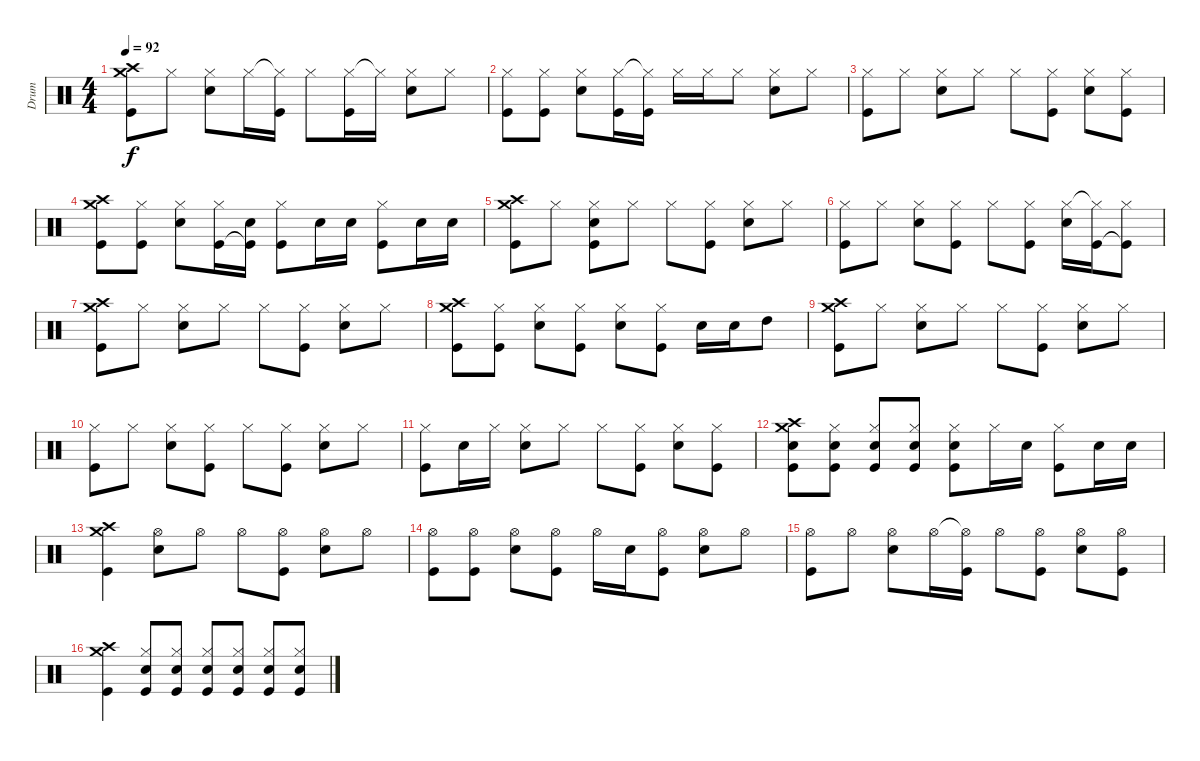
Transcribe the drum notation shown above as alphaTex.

\track ("Drum" "Drum") {instrument percussion}
\staff {score}
\articulation defaults
\ts (4 4)
\tempo 92
\clef neutral
\ks c
("Crash high (hit)" "Crash medium (hit)" "Kick (hit)").8{dy f} "Hi-Hat (closed)".8 ("Hi-Hat (closed)" "Snare (hit) 2").8 "Hi-Hat (closed)".16 ("Hi-Hat (closed)"{t} "Kick (hit)").16 "Hi-Hat (closed)".8 ("Hi-Hat (closed)" "Kick (hit)").16 "Hi-Hat (closed)"{t}.16 ("Hi-Hat (closed)" "Snare (hit) 2").8 "Hi-Hat (closed)".8 |
("Hi-Hat (closed)" "Kick (hit)").8 ("Hi-Hat (closed)" "Kick (hit)").8 ("Hi-Hat (closed)" "Snare (hit) 2").8 ("Hi-Hat (closed)" "Kick (hit)").16 ("Hi-Hat (closed)"{t} "Kick (hit)").16 "Hi-Hat (closed)".16 "Hi-Hat (closed)".16 "Hi-Hat (closed)".8 ("Hi-Hat (closed)" "Snare (hit) 2").8 "Hi-Hat (closed)".8 |
("Hi-Hat (closed)" "Kick (hit)").8 "Hi-Hat (closed)".8 ("Hi-Hat (closed)" "Snare (hit) 2").8 "Hi-Hat (closed)".8 "Hi-Hat (closed)".8 ("Hi-Hat (closed)" "Kick (hit)").8 ("Hi-Hat (closed)" "Snare (hit) 2").8 ("Hi-Hat (closed)" "Kick (hit)").8 |
("Crash high (hit)" "Crash medium (hit)" "Kick (hit)").8 ("Hi-Hat (closed)" "Kick (hit)").8 ("Hi-Hat (closed)" "Snare (hit) 2").8 ("Hi-Hat (closed)" "Kick (hit)").16 ("Snare (hit) 2" "Kick (hit)"{t}).16 ("Hi-Hat (closed)" "Kick (hit)").8 "Snare (hit) 2".16 "Snare (hit) 2".16 ("Hi-Hat (closed)" "Kick (hit)").8 "Snare (hit) 2".16 "Snare (hit) 2".16 |
("Crash high (hit)" "Crash medium (hit)" "Kick (hit)").8 "Hi-Hat (closed)".8 ("Hi-Hat (closed)" "Snare (hit) 2" "Kick (hit)").8 "Hi-Hat (closed)".8 "Hi-Hat (closed)".8 ("Hi-Hat (closed)" "Kick (hit)").8 ("Hi-Hat (closed)" "Snare (hit) 2").8 "Hi-Hat (closed)".8 |
("Hi-Hat (closed)" "Kick (hit)").8 "Hi-Hat (closed)".8 ("Hi-Hat (closed)" "Snare (hit) 2").8 ("Hi-Hat (closed)" "Kick (hit)").8 "Hi-Hat (closed)".8 ("Hi-Hat (closed)" "Kick (hit)").8 ("Hi-Hat (closed)" "Snare (hit) 2").16 ("Hi-Hat (closed)"{t} "Kick (hit)").16 ("Hi-Hat (closed)" "Kick (hit)"{t}).8 |
("Crash high (hit)" "Crash medium (hit)" "Kick (hit)").8 "Hi-Hat (closed)".8 ("Hi-Hat (closed)" "Snare (hit) 2").8 "Hi-Hat (closed)".8 "Hi-Hat (closed)".8 ("Hi-Hat (closed)" "Kick (hit)").8 ("Hi-Hat (closed)" "Snare (hit) 2").8 "Hi-Hat (closed)".8 |
("Crash high (hit)" "Crash medium (hit)" "Kick (hit)").8 ("Hi-Hat (closed)" "Kick (hit)").8 ("Hi-Hat (closed)" "Snare (hit) 2").8 ("Hi-Hat (closed)" "Kick (hit)").8 ("Hi-Hat (closed)" "Snare (hit) 2").8 ("Hi-Hat (closed)" "Kick (hit)").8 "Snare (hit) 2".16 "Snare (hit) 2".16 "High Tom (hit)".8 |
("Crash high (hit)" "Crash medium (hit)" "Kick (hit)").8 "Hi-Hat (closed)".8 ("Hi-Hat (closed)" "Snare (hit) 2").8 "Hi-Hat (closed)".8 "Hi-Hat (closed)".8 ("Hi-Hat (closed)" "Kick (hit)").8 ("Hi-Hat (closed)" "Snare (hit) 2").8 "Hi-Hat (closed)".8 |
("Hi-Hat (closed)" "Kick (hit)").8 "Hi-Hat (closed)".8 ("Hi-Hat (closed)" "Snare (hit) 2").8 ("Hi-Hat (closed)" "Kick (hit)").8 "Hi-Hat (closed)".8 ("Hi-Hat (closed)" "Kick (hit)").8 ("Hi-Hat (closed)" "Snare (hit) 2").8 "Hi-Hat (closed)".8 |
("Hi-Hat (closed)" "Kick (hit)").8 "Snare (hit) 2".16 "Hi-Hat (closed)".16 ("Hi-Hat (closed)" "Snare (hit) 2").8 "Hi-Hat (closed)".8 "Hi-Hat (closed)".8 ("Hi-Hat (closed)" "Kick (hit)").8 ("Hi-Hat (closed)" "Snare (hit) 2").8 ("Hi-Hat (closed)" "Kick (hit)").8 |
("Crash high (hit)" "Crash medium (hit)" "Snare (hit) 2" "Kick (hit)").8 ("Hi-Hat (closed)" "Snare (hit) 2" "Kick (hit)").8 ("Hi-Hat (closed)" "Snare (hit) 2" "Kick (hit)").8 ("Hi-Hat (closed)" "Snare (hit) 2" "Kick (hit)").8 ("Hi-Hat (closed)" "Snare (hit) 2" "Kick (hit)").8 "Hi-Hat (closed)".16 "Snare (hit) 2".16 ("Hi-Hat (closed)" "Kick (hit)").8 "Snare (hit) 2".16 "Snare (hit) 2".16 |
("Crash high (hit)" "Crash medium (hit)" "Kick (hit)").4 ("Hi-Hat (open)" "Snare (hit) 2").8 "Hi-Hat (open)".8 "Hi-Hat (open)".8 ("Hi-Hat (open)" "Kick (hit)").8 ("Hi-Hat (open)" "Snare (hit) 2").8 "Hi-Hat (open)".8 |
("Hi-Hat (open)" "Kick (hit)").8 ("Hi-Hat (open)" "Kick (hit)").8 ("Hi-Hat (open)" "Snare (hit) 2").8 ("Hi-Hat (open)" "Kick (hit)").8 "Hi-Hat (open)".16 "Snare (hit) 2".16 ("Hi-Hat (open)" "Kick (hit)").8 ("Hi-Hat (open)" "Snare (hit) 2").8 "Hi-Hat (open)".8 |
("Hi-Hat (open)" "Kick (hit)").8 "Hi-Hat (open)".8 ("Hi-Hat (open)" "Snare (hit) 2").8 "Hi-Hat (open)".16 ("Hi-Hat (open)"{t} "Kick (hit)").16 "Hi-Hat (open)".8 ("Hi-Hat (open)" "Kick (hit)").8 ("Hi-Hat (open)" "Snare (hit) 2").8 ("Hi-Hat (open)" "Kick (hit)").8 |
("Crash high (hit)" "Crash medium (hit)" "Kick (hit)").4 ("Hi-Hat (closed)" "Snare (hit) 2" "Kick (hit)").8 ("Hi-Hat (closed)" "Snare (hit) 2" "Kick (hit)").8 ("Hi-Hat (closed)" "Snare (hit) 2" "Kick (hit)").8 ("Hi-Hat (closed)" "Snare (hit) 2" "Kick (hit)").8 ("Hi-Hat (closed)" "Snare (hit) 2" "Kick (hit)").8 ("Hi-Hat (closed)" "Snare (hit) 2" "Kick (hit)").8
